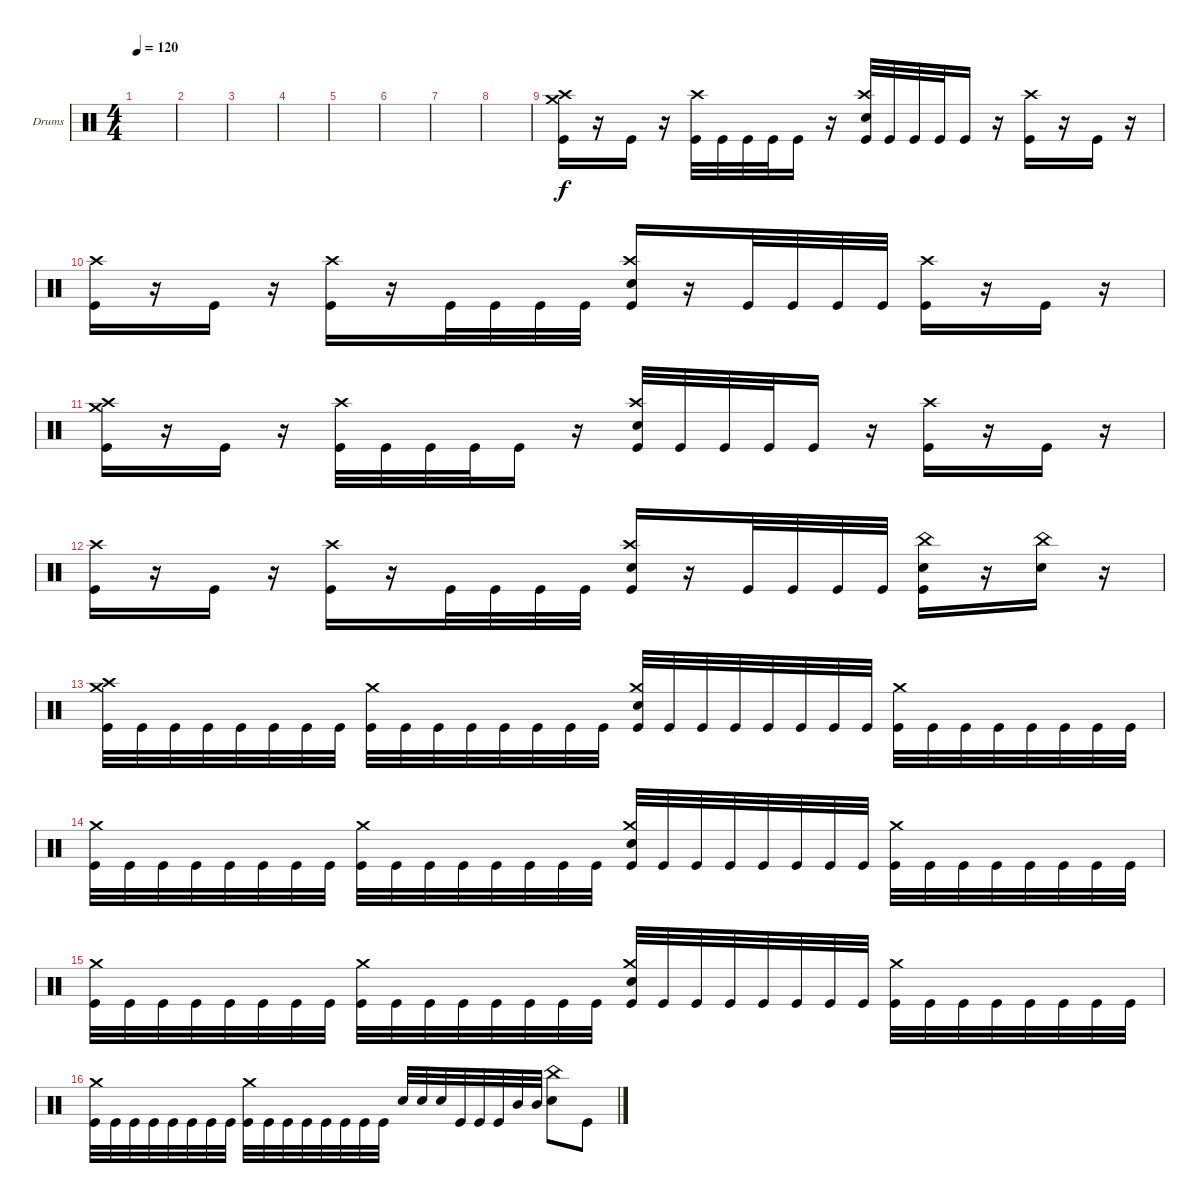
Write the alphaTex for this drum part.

\bracketExtendMode groupsimilarinstruments
\firstSystemTrackNameOrientation horizontal
\otherSystemsTrackNameOrientation horizontal
\track ("Drumkit" "Drums") {instrument percussion}
\staff {score}
\articulation defaults
\ts (4 4)
\tempo 120
\clef neutral
\ks c
|
|
|
|
|
|
|
|
("Kick (hit)" "Crash medium (hit)" "Crash high (hit)").16 r.16 "Kick (hit)".16 r.16 ("Kick (hit)" "Crash high (hit)").32 "Kick (hit)".32 "Kick (hit)".32 "Kick (hit)".32 "Kick (hit)".16 r.16 ("Kick (hit)" "Snare (hit) 2" "Crash high (hit)").32 "Kick (hit)".32 "Kick (hit)".32 "Kick (hit)".32 "Kick (hit)".16 r.16 ("Kick (hit)" "Crash high (hit)").16 r.16 "Kick (hit)".16 r.16 |
("Kick (hit)" "Crash high (hit)").16 r.16 "Kick (hit)".16 r.16 ("Kick (hit)" "Crash high (hit)").16 r.16 "Kick (hit)".32 "Kick (hit)".32 "Kick (hit)".32 "Kick (hit)".32 ("Kick (hit)" "Snare (hit) 2" "Crash high (hit)").16 r.16 "Kick (hit)".32 "Kick (hit)".32 "Kick (hit)".32 "Kick (hit)".32 ("Kick (hit)" "Crash high (hit)").16 r.16 "Kick (hit)".16 r.16 |
("Kick (hit)" "Crash medium (hit)" "Crash high (hit)").16 r.16 "Kick (hit)".16 r.16 ("Kick (hit)" "Crash high (hit)").32 "Kick (hit)".32 "Kick (hit)".32 "Kick (hit)".32 "Kick (hit)".16 r.16 ("Kick (hit)" "Snare (hit) 2" "Crash high (hit)").32 "Kick (hit)".32 "Kick (hit)".32 "Kick (hit)".32 "Kick (hit)".16 r.16 ("Kick (hit)" "Crash high (hit)").16 r.16 "Kick (hit)".16 r.16 |
("Kick (hit)" "Crash high (hit)").16 r.16 "Kick (hit)".16 r.16 ("Kick (hit)" "Crash high (hit)").16 r.16 "Kick (hit)".32 "Kick (hit)".32 "Kick (hit)".32 "Kick (hit)".32 ("Kick (hit)" "Snare (hit) 2" "Crash high (hit)").16 r.16 "Kick (hit)".32 "Kick (hit)".32 "Kick (hit)".32 "Kick (hit)".32 ("Kick (hit)" "Snare (hit) 2" "China (hit)").16 r.16 ("Snare (hit) 2" "China (hit)").16 r.16 |
("Kick (hit)" "Crash medium (hit)" "Crash high (hit)").32 "Kick (hit)".32 "Kick (hit)".32 "Kick (hit)".32 "Kick (hit)".32 "Kick (hit)".32 "Kick (hit)".32 "Kick (hit)".32 ("Kick (hit)" "Crash medium (hit)").32 "Kick (hit)".32 "Kick (hit)".32 "Kick (hit)".32 "Kick (hit)".32 "Kick (hit)".32 "Kick (hit)".32 "Kick (hit)".32 ("Kick (hit)" "Crash medium (hit)" "Snare (hit) 2").32 "Kick (hit)".32 "Kick (hit)".32 "Kick (hit)".32 "Kick (hit)".32 "Kick (hit)".32 "Kick (hit)".32 "Kick (hit)".32 ("Kick (hit)" "Crash medium (hit)").32 "Kick (hit)".32 "Kick (hit)".32 "Kick (hit)".32 "Kick (hit)".32 "Kick (hit)".32 "Kick (hit)".32 "Kick (hit)".32 |
("Kick (hit)" "Crash medium (hit)").32 "Kick (hit)".32 "Kick (hit)".32 "Kick (hit)".32 "Kick (hit)".32 "Kick (hit)".32 "Kick (hit)".32 "Kick (hit)".32 ("Kick (hit)" "Crash medium (hit)").32 "Kick (hit)".32 "Kick (hit)".32 "Kick (hit)".32 "Kick (hit)".32 "Kick (hit)".32 "Kick (hit)".32 "Kick (hit)".32 ("Kick (hit)" "Crash medium (hit)" "Snare (hit) 2").32 "Kick (hit)".32 "Kick (hit)".32 "Kick (hit)".32 "Kick (hit)".32 "Kick (hit)".32 "Kick (hit)".32 "Kick (hit)".32 ("Kick (hit)" "Crash medium (hit)").32 "Kick (hit)".32 "Kick (hit)".32 "Kick (hit)".32 "Kick (hit)".32 "Kick (hit)".32 "Kick (hit)".32 "Kick (hit)".32 |
("Kick (hit)" "Crash medium (hit)").32 "Kick (hit)".32 "Kick (hit)".32 "Kick (hit)".32 "Kick (hit)".32 "Kick (hit)".32 "Kick (hit)".32 "Kick (hit)".32 ("Kick (hit)" "Crash medium (hit)").32 "Kick (hit)".32 "Kick (hit)".32 "Kick (hit)".32 "Kick (hit)".32 "Kick (hit)".32 "Kick (hit)".32 "Kick (hit)".32 ("Kick (hit)" "Crash medium (hit)" "Snare (hit) 2").32 "Kick (hit)".32 "Kick (hit)".32 "Kick (hit)".32 "Kick (hit)".32 "Kick (hit)".32 "Kick (hit)".32 "Kick (hit)".32 ("Kick (hit)" "Crash medium (hit)").32 "Kick (hit)".32 "Kick (hit)".32 "Kick (hit)".32 "Kick (hit)".32 "Kick (hit)".32 "Kick (hit)".32 "Kick (hit)".32 |
("Kick (hit)" "Crash medium (hit)").32 "Kick (hit)".32 "Kick (hit)".32 "Kick (hit)".32 "Kick (hit)".32 "Kick (hit)".32 "Kick (hit)".32 "Kick (hit)".32 ("Kick (hit)" "Crash medium (hit)").32 "Kick (hit)".32 "Kick (hit)".32 "Kick (hit)".32 "Kick (hit)".32 "Kick (hit)".32 "Kick (hit)".32 "Kick (hit)".32 "Snare (hit) 2".32 "Snare (hit) 2".32 "Snare (hit) 2".32 "Kick (hit)".32 "Kick (hit)".32 "Kick (hit)".32 "Mid Tom (hit)".32 "Mid Tom (hit)".32 ("China (hit)" "Snare (hit) 2").8 "Kick (hit)".8
